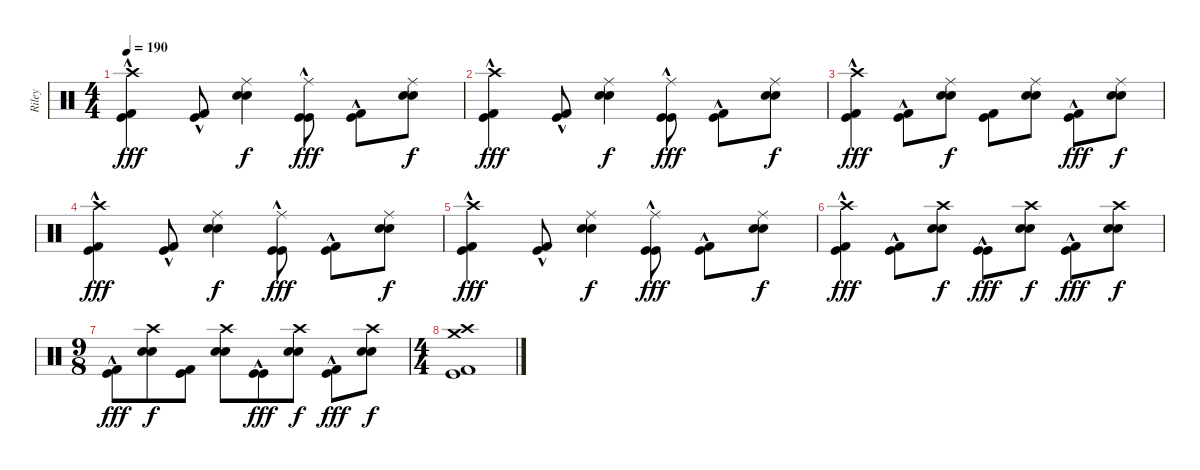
\track ("Riley" "Riley") {instrument percussion}
\staff {score}
\articulation defaults
\ts (4 4)
\tempo 190
\clef neutral
\ks c
("Crash high (hit)" "Kick (hit)"{hac} "Kick (hit) 2"{hac}).4{dy fff} ("Kick (hit)"{hac} "Kick (hit) 2"{hac}).8 ("Ride (middle)" "Electric Snare (hit)" "Snare (hit) 2").4{dy f} ("Ride (middle)" "Kick (hit)"{hac} "Kick (hit)"{hac}).8{dy fff} ("Kick (hit)"{hac} "Kick (hit) 2"{hac}).8 ("Ride (middle)" "Electric Snare (hit)" "Snare (hit) 2").8{dy f} |
("Crash high (hit)" "Kick (hit)"{hac} "Kick (hit) 2"{hac}).4{dy fff} ("Kick (hit)"{hac} "Kick (hit) 2"{hac}).8 ("Ride (middle)" "Electric Snare (hit)" "Snare (hit) 2").4{dy f} ("Ride (middle)" "Kick (hit)"{hac} "Kick (hit)"{hac}).8{dy fff} ("Kick (hit)"{hac} "Kick (hit) 2"{hac}).8 ("Ride (middle)" "Electric Snare (hit)" "Snare (hit) 2").8{dy f} |
("Crash high (hit)" "Kick (hit)"{hac} "Kick (hit) 2"{hac}).4{dy fff} ("Kick (hit)"{hac} "Kick (hit) 2"{hac}).8 ("Ride (middle)" "Electric Snare (hit)" "Snare (hit) 2").8{dy f} ("Kick (hit)" "Kick (hit) 2").8 ("Ride (middle)" "Electric Snare (hit)" "Snare (hit) 2").8 ("Kick (hit)"{hac} "Kick (hit) 2"{hac}).8{dy fff} ("Ride (middle)" "Electric Snare (hit)" "Snare (hit) 2").8{dy f} |
("Crash high (hit)" "Kick (hit)"{hac} "Kick (hit) 2"{hac}).4{dy fff} ("Kick (hit)"{hac} "Kick (hit) 2"{hac}).8 ("Ride (middle)" "Electric Snare (hit)" "Snare (hit) 2").4{dy f} ("Ride (middle)" "Kick (hit)"{hac} "Kick (hit)"{hac}).8{dy fff} ("Kick (hit)"{hac} "Kick (hit) 2"{hac}).8 ("Ride (middle)" "Electric Snare (hit)" "Snare (hit) 2").8{dy f} |
("Crash high (hit)" "Kick (hit)"{hac} "Kick (hit) 2"{hac}).4{dy fff} ("Kick (hit)"{hac} "Kick (hit) 2"{hac}).8 ("Ride (middle)" "Electric Snare (hit)" "Snare (hit) 2").4{dy f} ("Ride (middle)" "Kick (hit)"{hac} "Kick (hit)"{hac}).8{dy fff} ("Kick (hit)"{hac} "Kick (hit) 2"{hac}).8 ("Ride (middle)" "Electric Snare (hit)" "Snare (hit) 2").8{dy f} |
("Crash high (hit)" "Kick (hit)"{hac} "Kick (hit) 2"{hac}).4{dy fff} ("Kick (hit)"{hac} "Kick (hit) 2"{hac}).8 ("Crash high (hit)" "Electric Snare (hit)" "Snare (hit) 2").8{dy f} ("Kick (hit)"{hac} "Kick (hit)"{hac}).8{dy fff} ("Crash high (hit)" "Electric Snare (hit)" "Snare (hit) 2").8{dy f} ("Kick (hit)"{hac} "Kick (hit) 2"{hac}).8{dy fff} ("Crash high (hit)" "Electric Snare (hit)" "Snare (hit) 2").8{dy f} |
\ts (9 8)
("Kick (hit)"{hac} "Kick (hit) 2"{hac}).8{dy fff} ("Crash high (hit)" "Electric Snare (hit)" "Snare (hit) 2").8{dy f} ("Kick (hit)" "Kick (hit) 2").8 ("Crash high (hit)" "Electric Snare (hit)" "Snare (hit) 2").8 ("Kick (hit)"{hac} "Kick (hit)"{hac}).8{dy fff} ("Crash high (hit)" "Electric Snare (hit)" "Snare (hit) 2").8{dy f} ("Kick (hit)"{hac} "Kick (hit) 2"{hac}).8{dy fff} ("Crash high (hit)" "Electric Snare (hit)" "Snare (hit) 2").8{dy f} |
\ts (4 4)
("Crash high (hit)" "Crash medium (hit)" "Kick (hit)" "Kick (hit) 2").1
